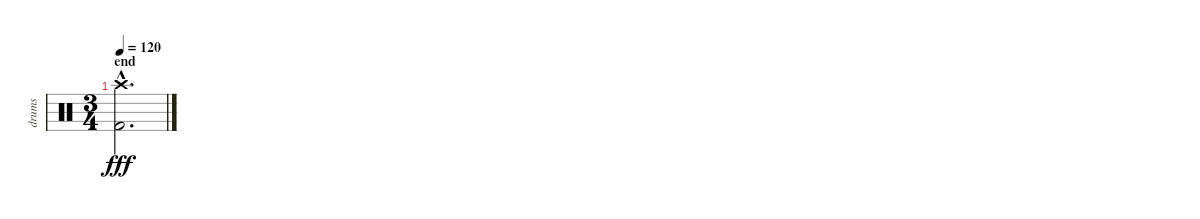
\track ("drums" "drums") {instrument percussion}
\staff {score}
\articulation defaults
\ts (3 4)
\section ("" "end")
\tempo 120
\clef neutral
\ks c
("Crash high (hit)"{hac} "Kick (hit) 2"{hac}).2{d dy fff}
